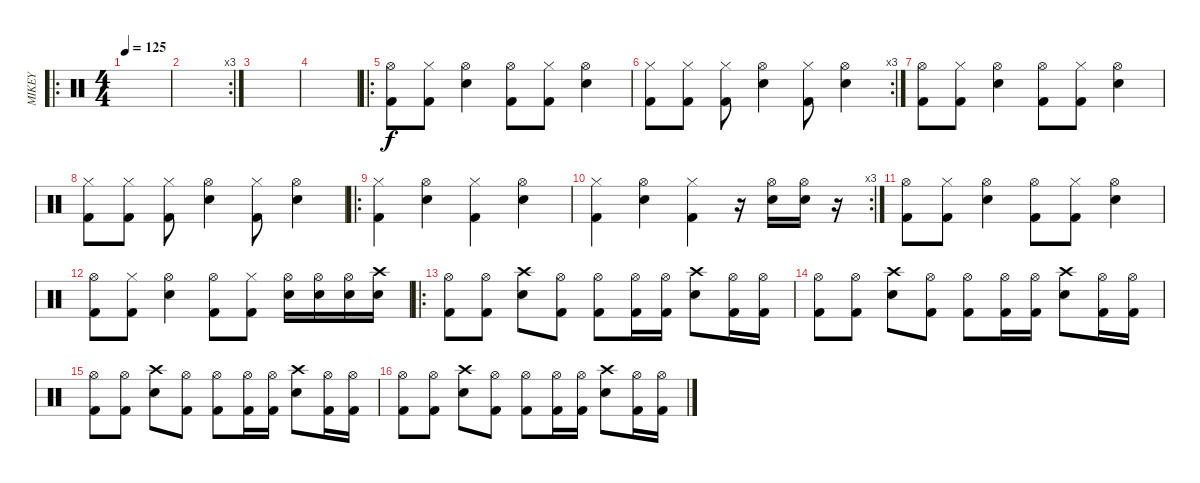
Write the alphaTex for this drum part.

\track ("MIKEY" "MIKEY") {instrument percussion}
\staff {score}
\articulation defaults
\ro
\ts (4 4)
\tempo 125
\clef neutral
\ks c
|
\rc 3
|
|
|
\ro
("Hi-Hat (open)" "Kick (hit) 2").8 ("Hi-Hat (closed)" "Kick (hit) 2").8 ("Hi-Hat (open)" "Snare (hit) 2").4 ("Hi-Hat (open)" "Kick (hit) 2").8 ("Hi-Hat (closed)" "Kick (hit) 2").8 ("Hi-Hat (open)" "Snare (hit) 2").4 |
\rc 3
("Hi-Hat (closed)" "Kick (hit) 2").8 ("Hi-Hat (closed)" "Kick (hit) 2").8 ("Hi-Hat (closed)" "Kick (hit) 2").8 ("Hi-Hat (open)" "Snare (hit) 2").4 ("Hi-Hat (closed)" "Kick (hit) 2").8 ("Hi-Hat (open)" "Snare (hit) 2").4 |
("Hi-Hat (open)" "Kick (hit) 2").8 ("Hi-Hat (closed)" "Kick (hit) 2").8 ("Hi-Hat (open)" "Snare (hit) 2").4 ("Hi-Hat (open)" "Kick (hit) 2").8 ("Hi-Hat (closed)" "Kick (hit) 2").8 ("Hi-Hat (open)" "Snare (hit) 2").4 |
("Hi-Hat (closed)" "Kick (hit) 2").8 ("Hi-Hat (closed)" "Kick (hit) 2").8 ("Hi-Hat (closed)" "Kick (hit) 2").8 ("Hi-Hat (open)" "Snare (hit) 2").4 ("Hi-Hat (closed)" "Kick (hit) 2").8 ("Hi-Hat (open)" "Snare (hit) 2").4 |
\ro
("Hi-Hat (closed)" "Kick (hit) 2").4 ("Hi-Hat (open)" "Snare (hit) 2").4 ("Hi-Hat (closed)" "Kick (hit) 2").4 ("Hi-Hat (open)" "Snare (hit) 2").4 |
\rc 3
("Hi-Hat (closed)" "Kick (hit) 2").4 ("Hi-Hat (open)" "Snare (hit) 2").4 ("Hi-Hat (closed)" "Kick (hit) 2").4 r.16 ("Hi-Hat (open)" "Snare (hit) 2").16 ("Hi-Hat (open)" "Snare (hit) 2").16 r.16 |
("Hi-Hat (open)" "Kick (hit) 2").8 ("Hi-Hat (closed)" "Kick (hit) 2").8 ("Hi-Hat (open)" "Snare (hit) 2").4 ("Hi-Hat (open)" "Kick (hit) 2").8 ("Hi-Hat (closed)" "Kick (hit) 2").8 ("Hi-Hat (open)" "Snare (hit) 2").4 |
("Hi-Hat (open)" "Kick (hit) 2").8 ("Hi-Hat (closed)" "Kick (hit) 2").8 ("Hi-Hat (open)" "Snare (hit) 2").4 ("Hi-Hat (open)" "Kick (hit) 2").8 ("Hi-Hat (closed)" "Kick (hit) 2").8 ("Hi-Hat (open)" "Snare (hit) 2").16 ("Hi-Hat (open)" "Snare (hit) 2").16 ("Hi-Hat (open)" "Snare (hit) 2").16 ("Crash high (hit)" "Snare (hit) 2").16 |
\ro
("Kick (hit) 2" "Hi-Hat (open)").8 ("Kick (hit) 2" "Hi-Hat (open)").8 ("Electric Snare (hit)" "Crash high (hit)").8 ("Kick (hit) 2" "Hi-Hat (open)").8 ("Kick (hit) 2" "Hi-Hat (open)").8 ("Kick (hit) 2" "Hi-Hat (open)").16 ("Kick (hit) 2" "Hi-Hat (open)").16 ("Electric Snare (hit)" "Crash high (hit)").8 ("Kick (hit) 2" "Hi-Hat (open)").16 ("Kick (hit) 2" "Hi-Hat (open)").16 |
("Kick (hit) 2" "Hi-Hat (open)").8 ("Kick (hit) 2" "Hi-Hat (open)").8 ("Electric Snare (hit)" "Crash high (hit)").8 ("Kick (hit) 2" "Hi-Hat (open)").8 ("Kick (hit) 2" "Hi-Hat (open)").8 ("Kick (hit) 2" "Hi-Hat (open)").16 ("Kick (hit) 2" "Hi-Hat (open)").16 ("Electric Snare (hit)" "Crash high (hit)").8 ("Kick (hit) 2" "Hi-Hat (open)").16 ("Kick (hit) 2" "Hi-Hat (open)").16 |
("Kick (hit) 2" "Hi-Hat (open)").8 ("Kick (hit) 2" "Hi-Hat (open)").8 ("Electric Snare (hit)" "Crash high (hit)").8 ("Kick (hit) 2" "Hi-Hat (open)").8 ("Kick (hit) 2" "Hi-Hat (open)").8 ("Kick (hit) 2" "Hi-Hat (open)").16 ("Kick (hit) 2" "Hi-Hat (open)").16 ("Electric Snare (hit)" "Crash high (hit)").8 ("Kick (hit) 2" "Hi-Hat (open)").16 ("Kick (hit) 2" "Hi-Hat (open)").16 |
("Kick (hit) 2" "Hi-Hat (open)").8 ("Kick (hit) 2" "Hi-Hat (open)").8 ("Electric Snare (hit)" "Crash high (hit)").8 ("Kick (hit) 2" "Hi-Hat (open)").8 ("Kick (hit) 2" "Hi-Hat (open)").8 ("Kick (hit) 2" "Hi-Hat (open)").16 ("Kick (hit) 2" "Hi-Hat (open)").16 ("Electric Snare (hit)" "Crash high (hit)").8 ("Kick (hit) 2" "Hi-Hat (open)").16 ("Kick (hit) 2" "Hi-Hat (open)").16
